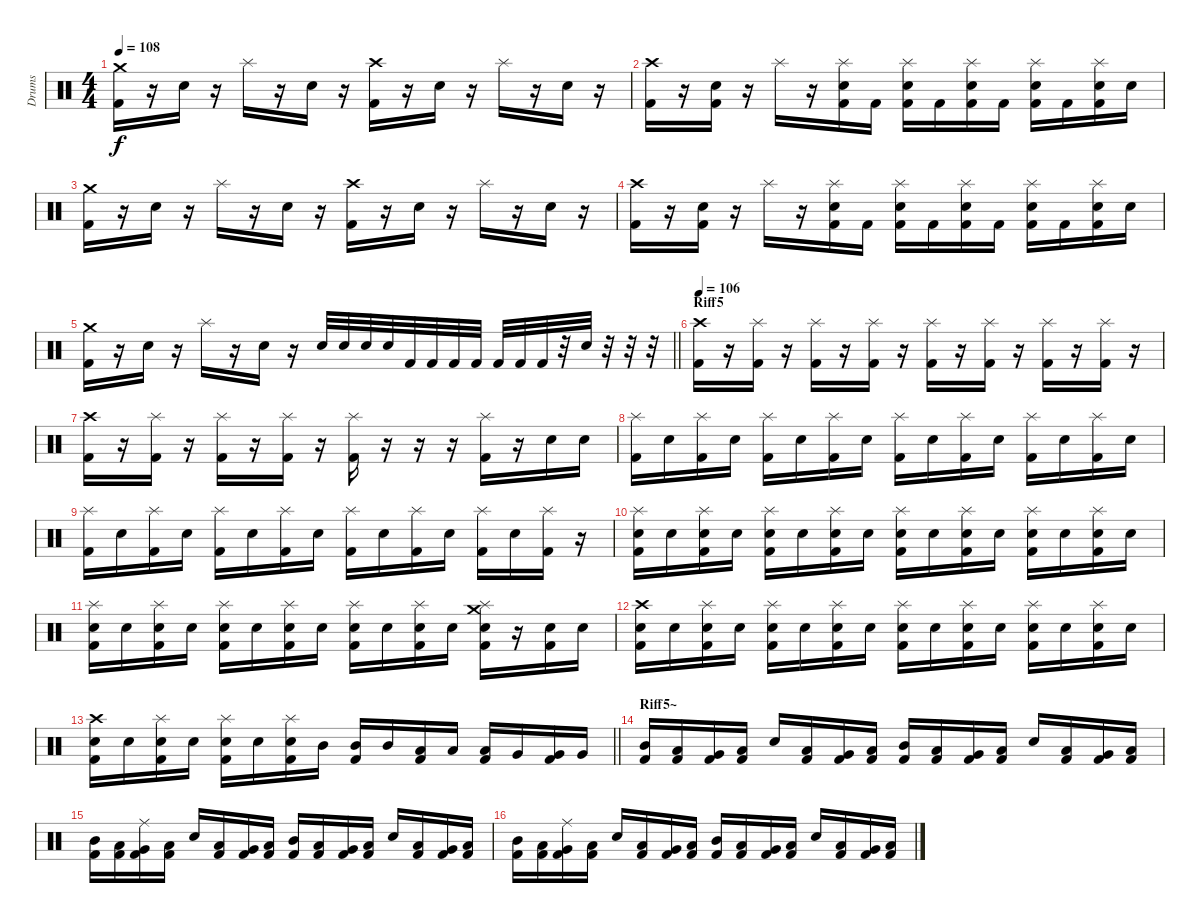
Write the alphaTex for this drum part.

\track ("Drums" "Drums") {instrument percussion}
\staff {score}
\articulation defaults
\ts (4 4)
\tempo 108
\clef neutral
\ks c
("Crash medium (hit)" "Kick (hit) 2").16{dy f} r.16 "Snare (hit) 2".16 r.16 "Splash (hit)".16 r.16 "Snare (hit) 2".16 r.16 ("Crash high (hit)" "Kick (hit) 2").16 r.16 "Snare (hit) 2".16 r.16 "Splash (hit)".16 r.16 "Snare (hit) 2".16 r.16 |
("Crash high (hit)" "Kick (hit) 2").16 r.16 ("Snare (hit) 2" "Kick (hit) 2").16 r.16 "Splash (hit)".16 r.16 ("Splash (hit)" "Snare (hit) 2" "Kick (hit) 2").16 "Kick (hit) 2".16 ("Splash (hit)" "Snare (hit) 2" "Kick (hit) 2").16 "Kick (hit) 2".16 ("Splash (hit)" "Snare (hit) 2" "Kick (hit) 2").16 "Kick (hit) 2".16 ("Splash (hit)" "Snare (hit) 2" "Kick (hit) 2").16 "Kick (hit) 2".16 ("Splash (hit)" "Snare (hit) 2" "Kick (hit) 2").16 "Snare (hit) 2".16 |
("Crash medium (hit)" "Kick (hit) 2").16 r.16 "Snare (hit) 2".16 r.16 "Splash (hit)".16 r.16 "Snare (hit) 2".16 r.16 ("Crash high (hit)" "Kick (hit) 2").16 r.16 "Snare (hit) 2".16 r.16 "Splash (hit)".16 r.16 "Snare (hit) 2".16 r.16 |
("Crash high (hit)" "Kick (hit) 2").16 r.16 ("Snare (hit) 2" "Kick (hit) 2").16 r.16 "Splash (hit)".16 r.16 ("Splash (hit)" "Snare (hit) 2" "Kick (hit) 2").16 "Kick (hit) 2".16 ("Splash (hit)" "Snare (hit) 2" "Kick (hit) 2").16 "Kick (hit) 2".16 ("Splash (hit)" "Snare (hit) 2" "Kick (hit) 2").16 "Kick (hit) 2".16 ("Splash (hit)" "Snare (hit) 2" "Kick (hit) 2").16 "Kick (hit) 2".16 ("Splash (hit)" "Snare (hit) 2" "Kick (hit) 2").16 "Snare (hit) 2".16 |
\barLineRight lightlight
("Crash medium (hit)" "Kick (hit) 2").16 r.16 "Snare (hit) 2".16 r.16 "Splash (hit)".16 r.16 "Snare (hit) 2".16 r.16 "Snare (hit) 2".32 "Snare (hit) 2".32 "Snare (hit) 2".32 "Snare (hit) 2".32 "Kick (hit) 2".32 "Kick (hit) 2".32 "Kick (hit) 2".32 "Kick (hit) 2".32 "Kick (hit) 2".32 "Kick (hit) 2".32 "Kick (hit) 2".32 r.32 "Snare (hit) 2".32 r.32 r.32 r.32 |
\section ("" "Riff5")
\tempo 106
("Crash high (hit)" "Kick (hit) 2").16 r.16 ("Splash (hit)" "Kick (hit) 2").16 r.16 ("Splash (hit)" "Kick (hit) 2").16 r.16 ("Splash (hit)" "Kick (hit) 2").16 r.16 ("Splash (hit)" "Kick (hit) 2").16 r.16 ("Splash (hit)" "Kick (hit) 2").16 r.16 ("Splash (hit)" "Kick (hit) 2").16 r.16 ("Splash (hit)" "Kick (hit) 2").16 r.16 |
("Crash high (hit)" "Kick (hit) 2").16 r.16 ("Splash (hit)" "Kick (hit) 2").16 r.16 ("Splash (hit)" "Kick (hit) 2").16 r.16 ("Splash (hit)" "Kick (hit) 2").16 r.16 ("Splash (hit)" "Kick (hit) 2").16 r.16 r.16 r.16 ("Splash (hit)" "Kick (hit) 2").16 r.16 "Snare (hit) 2".16 "Snare (hit) 2".16 |
("Splash (hit)" "Kick (hit) 2").16 "Snare (hit) 2".16 ("Splash (hit)" "Kick (hit) 2").16 "Snare (hit) 2".16 ("Splash (hit)" "Kick (hit) 2").16 "Snare (hit) 2".16 ("Splash (hit)" "Kick (hit) 2").16 "Snare (hit) 2".16 ("Splash (hit)" "Kick (hit) 2").16 "Snare (hit) 2".16 ("Splash (hit)" "Kick (hit) 2").16 "Snare (hit) 2".16 ("Splash (hit)" "Kick (hit) 2").16 "Snare (hit) 2".16 ("Splash (hit)" "Kick (hit) 2").16 "Snare (hit) 2".16 |
("Splash (hit)" "Kick (hit) 2").16 "Snare (hit) 2".16 ("Splash (hit)" "Kick (hit) 2").16 "Snare (hit) 2".16 ("Splash (hit)" "Kick (hit) 2").16 "Snare (hit) 2".16 ("Splash (hit)" "Kick (hit) 2").16 "Snare (hit) 2".16 ("Splash (hit)" "Kick (hit) 2").16 "Snare (hit) 2".16 ("Splash (hit)" "Kick (hit) 2").16 "Snare (hit) 2".16 ("Splash (hit)" "Kick (hit) 2").16 "Snare (hit) 2".16 ("Splash (hit)" "Kick (hit) 2").16 r.16 |
("Snare (hit) 2" "Splash (hit)" "Kick (hit) 2").16 "Snare (hit) 2".16 ("Snare (hit) 2" "Splash (hit)" "Kick (hit) 2").16 "Snare (hit) 2".16 ("Snare (hit) 2" "Splash (hit)" "Kick (hit) 2").16 "Snare (hit) 2".16 ("Snare (hit) 2" "Splash (hit)" "Kick (hit) 2").16 "Snare (hit) 2".16 ("Snare (hit) 2" "Splash (hit)" "Kick (hit) 2").16 "Snare (hit) 2".16 ("Snare (hit) 2" "Splash (hit)" "Kick (hit) 2").16 "Snare (hit) 2".16 ("Snare (hit) 2" "Splash (hit)" "Kick (hit) 2").16 "Snare (hit) 2".16 ("Snare (hit) 2" "Splash (hit)" "Kick (hit) 2").16 "Snare (hit) 2".16 |
("Snare (hit) 2" "Splash (hit)" "Kick (hit) 2").16 "Snare (hit) 2".16 ("Snare (hit) 2" "Splash (hit)" "Kick (hit) 2").16 "Snare (hit) 2".16 ("Snare (hit) 2" "Splash (hit)" "Kick (hit) 2").16 "Snare (hit) 2".16 ("Snare (hit) 2" "Splash (hit)" "Kick (hit) 2").16 "Snare (hit) 2".16 ("Snare (hit) 2" "Splash (hit)" "Kick (hit) 2").16 "Snare (hit) 2".16 ("Snare (hit) 2" "Splash (hit)" "Kick (hit) 2").16 "Snare (hit) 2".16 ("Snare (hit) 2" "Splash (hit)" "Crash medium (hit)" "Kick (hit) 2").16 r.16 ("Snare (hit) 2" "Kick (hit) 2").16 "Snare (hit) 2".16 |
("Snare (hit) 2" "Crash high (hit)" "Kick (hit) 2").16 "Snare (hit) 2".16 ("Snare (hit) 2" "Splash (hit)" "Kick (hit) 2").16 "Snare (hit) 2".16 ("Snare (hit) 2" "Splash (hit)" "Kick (hit) 2").16 "Snare (hit) 2".16 ("Snare (hit) 2" "Splash (hit)" "Kick (hit) 2").16 "Snare (hit) 2".16 ("Snare (hit) 2" "Splash (hit)" "Kick (hit) 2").16 "Snare (hit) 2".16 ("Snare (hit) 2" "Splash (hit)" "Kick (hit) 2").16 "Snare (hit) 2".16 ("Snare (hit) 2" "Splash (hit)" "Kick (hit) 2").16 "Snare (hit) 2".16 ("Snare (hit) 2" "Splash (hit)" "Kick (hit) 2").16 "Snare (hit) 2".16 |
\barLineRight lightlight
("Snare (hit) 2" "Crash high (hit)" "Kick (hit) 2").16 "Snare (hit) 2".16 ("Snare (hit) 2" "Splash (hit)" "Kick (hit) 2").16 "Snare (hit) 2".16 ("Snare (hit) 2" "Splash (hit)" "Kick (hit) 2").16 "Snare (hit) 2".16 ("Snare (hit) 2" "Splash (hit)" "Kick (hit) 2").16 "Mid Tom (hit)".16 ("Mid Tom (hit)" "Kick (hit) 2").16 "Mid Tom (hit)".16 ("Low Tom (hit)" "Kick (hit) 2").16 "Low Tom (hit)".16 ("Low Tom (hit)" "Kick (hit) 2").16 "Very Low Tom (hit)".16 ("Very Low Tom (hit)" "Kick (hit) 2").16 "Very Low Tom (hit)".16 |
\section ("" "Riff5~")
("Mid Tom (hit)" "Kick (hit) 2").16 ("Low Tom (hit)" "Kick (hit) 2").16 ("Very Low Tom (hit)" "Kick (hit) 2").16 ("Low Floor Tom (hit)" "Kick (hit) 2").16 "Snare (hit) 2".16 ("Low Floor Tom (hit)" "Kick (hit) 2").16 ("Very Low Tom (hit)" "Kick (hit) 2").16 ("Low Tom (hit)" "Kick (hit) 2").16 ("Mid Tom (hit)" "Kick (hit) 2").16 ("Low Tom (hit)" "Kick (hit) 2").16 ("Very Low Tom (hit)" "Kick (hit) 2").16 ("Low Floor Tom (hit)" "Kick (hit) 2").16 "Snare (hit) 2".16 ("Low Floor Tom (hit)" "Kick (hit) 2").16 ("Very Low Tom (hit)" "Kick (hit) 2").16 ("Low Tom (hit)" "Kick (hit) 2").16 |
("Mid Tom (hit)" "Kick (hit) 2").16 ("Low Tom (hit)" "Kick (hit) 2").16 ("Ride (middle)" "Very Low Tom (hit)" "Kick (hit) 2").16 ("Low Floor Tom (hit)" "Kick (hit) 2").16 "Snare (hit) 2".16 ("Low Floor Tom (hit)" "Kick (hit) 2").16 ("Very Low Tom (hit)" "Kick (hit) 2").16 ("Low Tom (hit)" "Kick (hit) 2").16 ("Mid Tom (hit)" "Kick (hit) 2").16 ("Low Tom (hit)" "Kick (hit) 2").16 ("Very Low Tom (hit)" "Kick (hit) 2").16 ("Low Floor Tom (hit)" "Kick (hit) 2").16 "Snare (hit) 2".16 ("Low Floor Tom (hit)" "Kick (hit) 2").16 ("Very Low Tom (hit)" "Kick (hit) 2").16 ("Low Tom (hit)" "Kick (hit) 2").16 |
("Mid Tom (hit)" "Kick (hit) 2").16 ("Low Tom (hit)" "Kick (hit) 2").16 ("Ride (middle)" "Very Low Tom (hit)" "Kick (hit) 2").16 ("Low Floor Tom (hit)" "Kick (hit) 2").16 "Snare (hit) 2".16 ("Low Floor Tom (hit)" "Kick (hit) 2").16 ("Very Low Tom (hit)" "Kick (hit) 2").16 ("Low Tom (hit)" "Kick (hit) 2").16 ("Mid Tom (hit)" "Kick (hit) 2").16 ("Low Tom (hit)" "Kick (hit) 2").16 ("Very Low Tom (hit)" "Kick (hit) 2").16 ("Low Floor Tom (hit)" "Kick (hit) 2").16 "Snare (hit) 2".16 ("Low Floor Tom (hit)" "Kick (hit) 2").16 ("Very Low Tom (hit)" "Kick (hit) 2").16 ("Low Tom (hit)" "Kick (hit) 2").16
